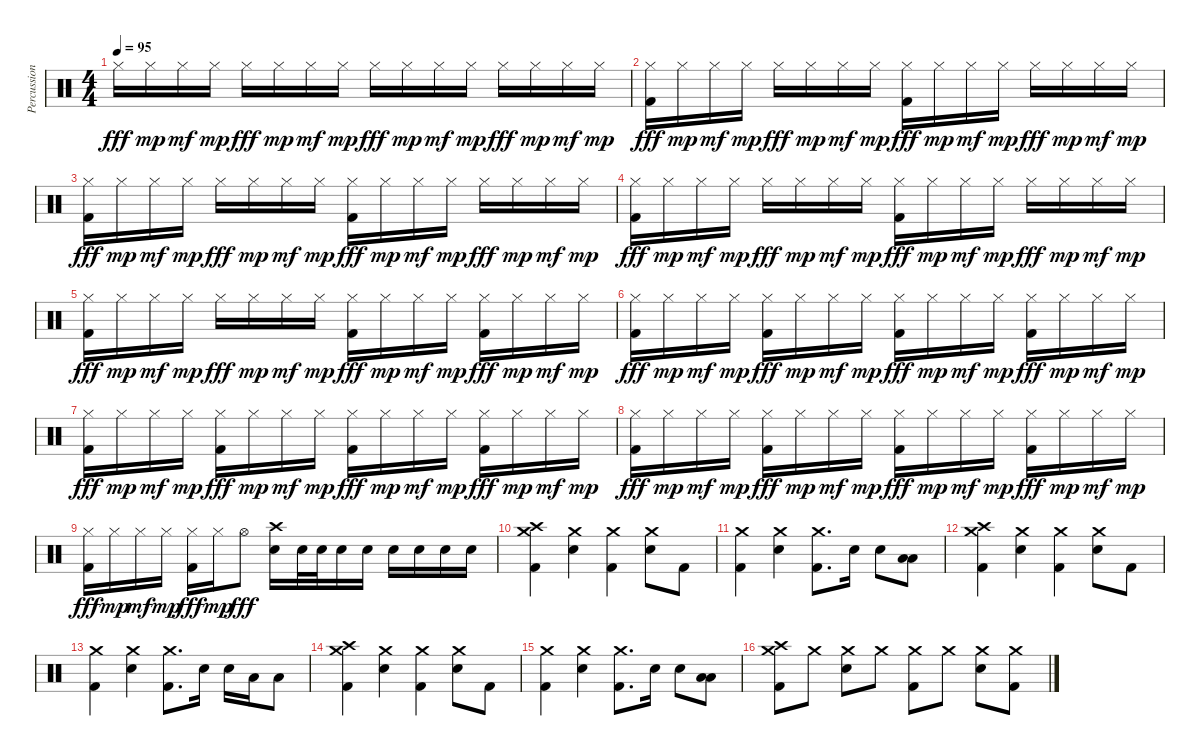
\track ("Percussion" "Percussion") {instrument percussion}
\staff {score}
\articulation defaults
\ts (4 4)
\tempo 95
\clef neutral
\ks c "Hi-Hat (closed)".16{dy fff} "Hi-Hat (closed)".16{dy mp} "Hi-Hat (closed)".16{dy mf} "Hi-Hat (closed)".16{dy mp} "Hi-Hat (closed)".16{dy fff} "Hi-Hat (closed)".16{dy mp} "Hi-Hat (closed)".16{dy mf} "Hi-Hat (closed)".16{dy mp} "Hi-Hat (closed)".16{dy fff} "Hi-Hat (closed)".16{dy mp} "Hi-Hat (closed)".16{dy mf} "Hi-Hat (closed)".16{dy mp} "Hi-Hat (closed)".16{dy fff} "Hi-Hat (closed)".16{dy mp} "Hi-Hat (closed)".16{dy mf} "Hi-Hat (closed)".16{dy mp}
|
("Hi-Hat (closed)" "Kick (hit) 2").16{dy fff} "Hi-Hat (closed)".16{dy mp} "Hi-Hat (closed)".16{dy mf} "Hi-Hat (closed)".16{dy mp} "Hi-Hat (closed)".16{dy fff} "Hi-Hat (closed)".16{dy mp} "Hi-Hat (closed)".16{dy mf} "Hi-Hat (closed)".16{dy mp} ("Hi-Hat (closed)" "Kick (hit) 2").16{dy fff} "Hi-Hat (closed)".16{dy mp} "Hi-Hat (closed)".16{dy mf} "Hi-Hat (closed)".16{dy mp} "Hi-Hat (closed)".16{dy fff} "Hi-Hat (closed)".16{dy mp} "Hi-Hat (closed)".16{dy mf} "Hi-Hat (closed)".16{dy mp} |
("Hi-Hat (closed)" "Kick (hit) 2").16{dy fff} "Hi-Hat (closed)".16{dy mp} "Hi-Hat (closed)".16{dy mf} "Hi-Hat (closed)".16{dy mp} "Hi-Hat (closed)".16{dy fff} "Hi-Hat (closed)".16{dy mp} "Hi-Hat (closed)".16{dy mf} "Hi-Hat (closed)".16{dy mp} ("Hi-Hat (closed)" "Kick (hit) 2").16{dy fff} "Hi-Hat (closed)".16{dy mp} "Hi-Hat (closed)".16{dy mf} "Hi-Hat (closed)".16{dy mp} "Hi-Hat (closed)".16{dy fff} "Hi-Hat (closed)".16{dy mp} "Hi-Hat (closed)".16{dy mf} "Hi-Hat (closed)".16{dy mp} |
("Hi-Hat (closed)" "Kick (hit) 2").16{dy fff} "Hi-Hat (closed)".16{dy mp} "Hi-Hat (closed)".16{dy mf} "Hi-Hat (closed)".16{dy mp} "Hi-Hat (closed)".16{dy fff} "Hi-Hat (closed)".16{dy mp} "Hi-Hat (closed)".16{dy mf} "Hi-Hat (closed)".16{dy mp} ("Hi-Hat (closed)" "Kick (hit) 2").16{dy fff} "Hi-Hat (closed)".16{dy mp} "Hi-Hat (closed)".16{dy mf} "Hi-Hat (closed)".16{dy mp} "Hi-Hat (closed)".16{dy fff} "Hi-Hat (closed)".16{dy mp} "Hi-Hat (closed)".16{dy mf} "Hi-Hat (closed)".16{dy mp} |
("Hi-Hat (closed)" "Kick (hit) 2").16{dy fff} "Hi-Hat (closed)".16{dy mp} "Hi-Hat (closed)".16{dy mf} "Hi-Hat (closed)".16{dy mp} "Hi-Hat (closed)".16{dy fff} "Hi-Hat (closed)".16{dy mp} "Hi-Hat (closed)".16{dy mf} "Hi-Hat (closed)".16{dy mp} ("Hi-Hat (closed)" "Kick (hit) 2").16{dy fff} "Hi-Hat (closed)".16{dy mp} "Hi-Hat (closed)".16{dy mf} "Hi-Hat (closed)".16{dy mp} ("Hi-Hat (closed)" "Kick (hit) 2").16{dy fff} "Hi-Hat (closed)".16{dy mp} "Hi-Hat (closed)".16{dy mf} "Hi-Hat (closed)".16{dy mp} |
("Hi-Hat (closed)" "Kick (hit) 2").16{dy fff} "Hi-Hat (closed)".16{dy mp} "Hi-Hat (closed)".16{dy mf} "Hi-Hat (closed)".16{dy mp} ("Hi-Hat (closed)" "Kick (hit) 2").16{dy fff} "Hi-Hat (closed)".16{dy mp} "Hi-Hat (closed)".16{dy mf} "Hi-Hat (closed)".16{dy mp} ("Hi-Hat (closed)" "Kick (hit) 2").16{dy fff} "Hi-Hat (closed)".16{dy mp} "Hi-Hat (closed)".16{dy mf} "Hi-Hat (closed)".16{dy mp} ("Hi-Hat (closed)" "Kick (hit) 2").16{dy fff} "Hi-Hat (closed)".16{dy mp} "Hi-Hat (closed)".16{dy mf} "Hi-Hat (closed)".16{dy mp} |
("Hi-Hat (closed)" "Kick (hit) 2").16{dy fff} "Hi-Hat (closed)".16{dy mp} "Hi-Hat (closed)".16{dy mf} "Hi-Hat (closed)".16{dy mp} ("Hi-Hat (closed)" "Kick (hit) 2").16{dy fff} "Hi-Hat (closed)".16{dy mp} "Hi-Hat (closed)".16{dy mf} "Hi-Hat (closed)".16{dy mp} ("Hi-Hat (closed)" "Kick (hit) 2").16{dy fff} "Hi-Hat (closed)".16{dy mp} "Hi-Hat (closed)".16{dy mf} "Hi-Hat (closed)".16{dy mp} ("Hi-Hat (closed)" "Kick (hit) 2").16{dy fff} "Hi-Hat (closed)".16{dy mp} "Hi-Hat (closed)".16{dy mf} "Hi-Hat (closed)".16{dy mp} |
("Hi-Hat (closed)" "Kick (hit) 2").16{dy fff} "Hi-Hat (closed)".16{dy mp} "Hi-Hat (closed)".16{dy mf} "Hi-Hat (closed)".16{dy mp} ("Hi-Hat (closed)" "Kick (hit) 2").16{dy fff} "Hi-Hat (closed)".16{dy mp} "Hi-Hat (closed)".16{dy mf} "Hi-Hat (closed)".16{dy mp} ("Hi-Hat (closed)" "Kick (hit) 2").16{dy fff} "Hi-Hat (closed)".16{dy mp} "Hi-Hat (closed)".16{dy mf} "Hi-Hat (closed)".16{dy mp} ("Hi-Hat (closed)" "Kick (hit) 2").16{dy fff} "Hi-Hat (closed)".16{dy mp} "Hi-Hat (closed)".16{dy mf} "Hi-Hat (closed)".16{dy mp} |
("Hi-Hat (closed)" "Kick (hit) 2").16{dy fff} "Hi-Hat (closed)".16{dy mp} "Hi-Hat (closed)".16{dy mf} "Hi-Hat (closed)".16{dy mp} ("Hi-Hat (closed)" "Kick (hit) 2").16{dy fff} "Hi-Hat (closed)".16{dy mp} "Hi-Hat (open)".8{dy fff} ("Crash high (hit)" "Electric Snare (hit)").16 "Electric Snare (hit)".32 "Electric Snare (hit)".32 "Electric Snare (hit)".16 "Electric Snare (hit)".16 "Electric Snare (hit)".16 "Electric Snare (hit)".16 "Electric Snare (hit)".16 "Electric Snare (hit)".16 |
("Crash high (hit)" "Crash medium (hit)" "Kick (hit) 2").4 ("Crash medium (hit)" "Electric Snare (hit)").4 ("Crash medium (hit)" "Kick (hit) 2").4 ("Crash medium (hit)" "Electric Snare (hit)").8 "Kick (hit) 2".8 |
("Crash medium (hit)" "Kick (hit) 2").4 ("Crash medium (hit)" "Electric Snare (hit)").4 ("Crash medium (hit)" "Kick (hit) 2").8{d} "Electric Snare (hit)".16 "Electric Snare (hit)".8 ("Low Tom (hit)" "Low Floor Tom (hit)").8 |
("Crash high (hit)" "Crash medium (hit)" "Kick (hit) 2").4 ("Crash medium (hit)" "Electric Snare (hit)").4 ("Crash medium (hit)" "Kick (hit) 2").4 ("Crash medium (hit)" "Electric Snare (hit)").8 "Kick (hit) 2".8 |
("Crash medium (hit)" "Kick (hit) 2").4 ("Crash medium (hit)" "Electric Snare (hit)").4 ("Crash medium (hit)" "Kick (hit) 2").8{d} "Electric Snare (hit)".16 "Electric Snare (hit)".16 "Low Tom (hit)".16 "Low Floor Tom (hit)".8 |
("Crash high (hit)" "Crash medium (hit)" "Kick (hit) 2").4 ("Crash medium (hit)" "Electric Snare (hit)").4 ("Crash medium (hit)" "Kick (hit) 2").4 ("Crash medium (hit)" "Electric Snare (hit)").8 "Kick (hit) 2".8 |
("Crash medium (hit)" "Kick (hit) 2").4 ("Crash medium (hit)" "Electric Snare (hit)").4 ("Crash medium (hit)" "Kick (hit) 2").8{d} "Electric Snare (hit)".16 "Electric Snare (hit)".8 ("Low Tom (hit)" "Low Floor Tom (hit)").8 |
("Crash high (hit)" "Crash medium (hit)" "Kick (hit) 2").8 "Crash medium (hit)".8 ("Crash medium (hit)" "Electric Snare (hit)").8 "Crash medium (hit)".8 ("Crash medium (hit)" "Kick (hit) 2").8 "Crash medium (hit)".8 ("Crash medium (hit)" "Electric Snare (hit)").8 ("Crash medium (hit)" "Kick (hit) 2").8
